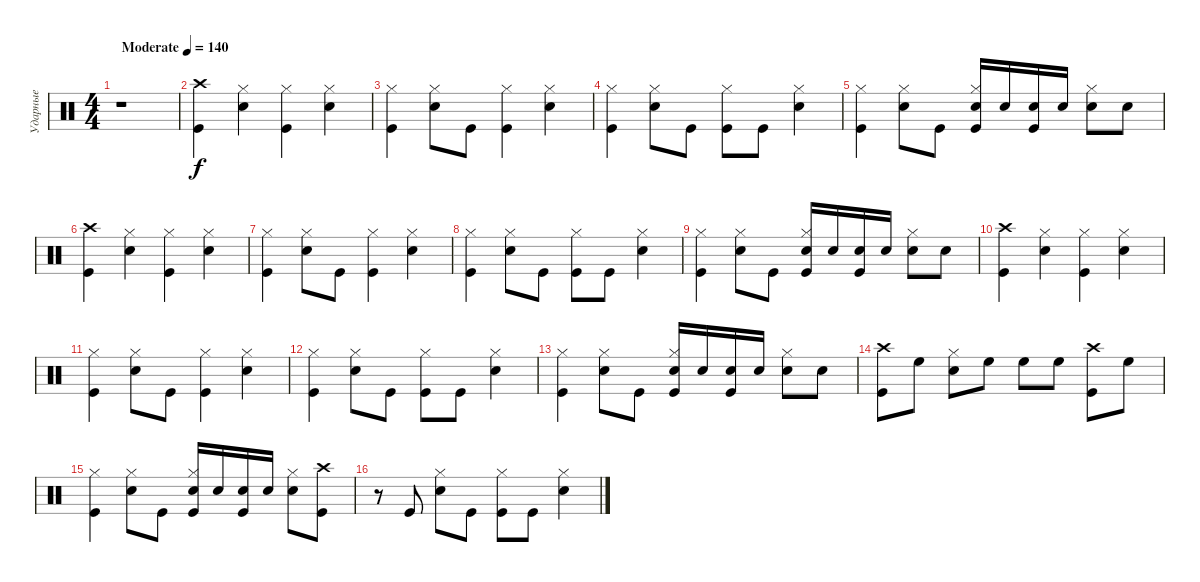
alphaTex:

\track ("Ударные" "Ударные") {instrument percussion}
\staff {score}
\articulation defaults
\ts (4 4)
\tempo (140 "Moderate")
\clef neutral
\ks c
r.1{dy f} |
("Crash high (hit)" "Kick (hit)").4 ("Hi-Hat (closed)" "Snare (hit) 2").4 ("Hi-Hat (closed)" "Kick (hit)").4 ("Hi-Hat (closed)" "Snare (hit) 2").4 |
("Hi-Hat (closed)" "Kick (hit)").4 ("Hi-Hat (closed)" "Snare (hit) 2").8 "Kick (hit)".8 ("Hi-Hat (closed)" "Kick (hit)").4 ("Hi-Hat (closed)" "Snare (hit) 2").4 |
("Hi-Hat (closed)" "Kick (hit)").4 ("Hi-Hat (closed)" "Snare (hit) 2").8 "Kick (hit)".8 ("Hi-Hat (closed)" "Kick (hit)").8 "Kick (hit)".8 ("Hi-Hat (closed)" "Snare (hit) 2").4 |
("Hi-Hat (closed)" "Kick (hit)").4 ("Hi-Hat (closed)" "Snare (hit) 2").8 "Kick (hit)".8 ("Hi-Hat (closed)" "Snare (hit) 2" "Kick (hit)").16 "Snare (hit) 2".16 ("Snare (hit) 2" "Kick (hit)").16 "Snare (hit) 2".16 ("Hi-Hat (closed)" "Snare (hit) 2").8 "Snare (hit) 2".8 |
("Crash high (hit)" "Kick (hit)").4 ("Hi-Hat (closed)" "Snare (hit) 2").4 ("Hi-Hat (closed)" "Kick (hit)").4 ("Hi-Hat (closed)" "Snare (hit) 2").4 |
("Hi-Hat (closed)" "Kick (hit)").4 ("Hi-Hat (closed)" "Snare (hit) 2").8 "Kick (hit)".8 ("Hi-Hat (closed)" "Kick (hit)").4 ("Hi-Hat (closed)" "Snare (hit) 2").4 |
("Hi-Hat (closed)" "Kick (hit)").4 ("Hi-Hat (closed)" "Snare (hit) 2").8 "Kick (hit)".8 ("Hi-Hat (closed)" "Kick (hit)").8 "Kick (hit)".8 ("Hi-Hat (closed)" "Snare (hit) 2").4 |
("Hi-Hat (closed)" "Kick (hit)").4 ("Hi-Hat (closed)" "Snare (hit) 2").8 "Kick (hit)".8 ("Hi-Hat (closed)" "Snare (hit) 2" "Kick (hit)").16 "Snare (hit) 2".16 ("Snare (hit) 2" "Kick (hit)").16 "Snare (hit) 2".16 ("Hi-Hat (closed)" "Snare (hit) 2").8 "Snare (hit) 2".8 |
("Crash high (hit)" "Kick (hit)").4 ("Hi-Hat (closed)" "Snare (hit) 2").4 ("Hi-Hat (closed)" "Kick (hit)").4 ("Hi-Hat (closed)" "Snare (hit) 2").4 |
("Hi-Hat (closed)" "Kick (hit)").4 ("Hi-Hat (closed)" "Snare (hit) 2").8 "Kick (hit)".8 ("Hi-Hat (closed)" "Kick (hit)").4 ("Hi-Hat (closed)" "Snare (hit) 2").4 |
("Hi-Hat (closed)" "Kick (hit)").4 ("Hi-Hat (closed)" "Snare (hit) 2").8 "Kick (hit)".8 ("Hi-Hat (closed)" "Kick (hit)").8 "Kick (hit)".8 ("Hi-Hat (closed)" "Snare (hit) 2").4 |
("Hi-Hat (closed)" "Kick (hit)").4 ("Hi-Hat (closed)" "Snare (hit) 2").8 "Kick (hit)".8 ("Hi-Hat (closed)" "Snare (hit) 2" "Kick (hit)").16 "Snare (hit) 2".16 ("Snare (hit) 2" "Kick (hit)").16 "Snare (hit) 2".16 ("Hi-Hat (closed)" "Snare (hit) 2").8 "Snare (hit) 2".8 |
("Crash high (hit)" "Kick (hit)").8 "High Floor Tom (hit)".8 ("Hi-Hat (closed)" "Snare (hit) 2").8 "High Floor Tom (hit)".8 "High Floor Tom (hit)".8 "High Floor Tom (hit)".8 ("Crash high (hit)" "Kick (hit)").8 "High Floor Tom (hit)".8 |
("Hi-Hat (closed)" "Kick (hit)").4 ("Hi-Hat (closed)" "Snare (hit) 2").8 "Kick (hit)".8 ("Hi-Hat (closed)" "Snare (hit) 2" "Kick (hit)").16 "Snare (hit) 2".16 ("Snare (hit) 2" "Kick (hit)").16 "Snare (hit) 2".16 ("Hi-Hat (closed)" "Snare (hit) 2").8 ("Crash high (hit)" "Kick (hit)").8 |
r.8 "Kick (hit)".8 ("Hi-Hat (closed)" "Snare (hit) 2").8 "Kick (hit)".8 ("Hi-Hat (closed)" "Kick (hit)").8 "Kick (hit)".8 ("Hi-Hat (closed)" "Snare (hit) 2").4
